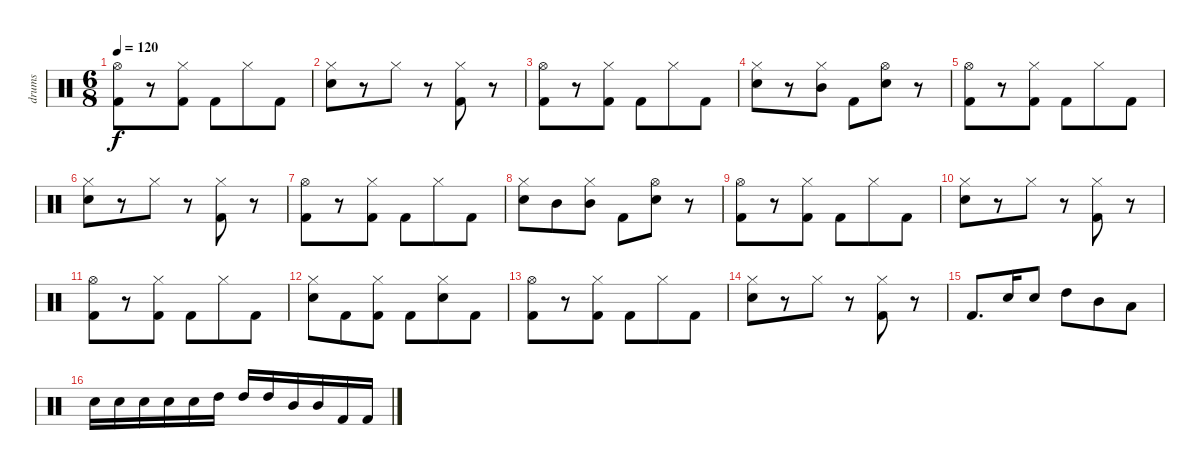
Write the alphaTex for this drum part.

\track ("drums" "drums") {instrument percussion}
\staff {score}
\articulation defaults
\ts (6 8)
\tempo 120
\clef neutral
\ks c
("Hi-Hat (open)" "Kick (hit) 2").8{dy f} r.8 ("Hi-Hat (closed)" "Kick (hit) 2").8 "Kick (hit) 2".8 "Hi-Hat (closed)".8 "Kick (hit) 2".8 |
("Hi-Hat (closed)" "Snare (hit) 2").8 r.8 "Hi-Hat (closed)".8 r.8 ("Hi-Hat (closed)" "Kick (hit) 2").8 r.8 |
("Hi-Hat (open)" "Kick (hit) 2").8 r.8 ("Hi-Hat (closed)" "Kick (hit) 2").8 "Kick (hit) 2".8 "Hi-Hat (closed)".8 "Kick (hit) 2".8 |
("Hi-Hat (closed)" "Snare (hit) 2").8 r.8 ("Hi-Hat (closed)" "Mid Tom (hit)").8 "Kick (hit) 2".8 ("Hi-Hat (open)" "Snare (hit) 2").8 r.8 |
("Hi-Hat (open)" "Kick (hit) 2").8 r.8 ("Hi-Hat (closed)" "Kick (hit) 2").8 "Kick (hit) 2".8 "Hi-Hat (closed)".8 "Kick (hit) 2".8 |
("Hi-Hat (closed)" "Snare (hit) 2").8 r.8 "Hi-Hat (closed)".8 r.8 ("Hi-Hat (closed)" "Kick (hit) 2").8 r.8 |
("Hi-Hat (open)" "Kick (hit) 2").8 r.8 ("Hi-Hat (closed)" "Kick (hit) 2").8 "Kick (hit) 2".8 "Hi-Hat (closed)".8 "Kick (hit) 2".8 |
("Hi-Hat (closed)" "Snare (hit) 2").8 "Mid Tom (hit)".8 ("Hi-Hat (closed)" "Mid Tom (hit)").8 "Kick (hit) 2".8 ("Hi-Hat (open)" "Snare (hit) 2").8 r.8 |
("Hi-Hat (open)" "Kick (hit) 2").8 r.8 ("Hi-Hat (closed)" "Kick (hit) 2").8 "Kick (hit) 2".8 "Hi-Hat (closed)".8 "Kick (hit) 2".8 |
("Hi-Hat (closed)" "Snare (hit) 2").8 r.8 "Hi-Hat (closed)".8 r.8 ("Hi-Hat (closed)" "Kick (hit) 2").8 r.8 |
("Hi-Hat (open)" "Kick (hit) 2").8 r.8 ("Hi-Hat (closed)" "Kick (hit) 2").8 "Kick (hit) 2".8 "Hi-Hat (closed)".8 "Kick (hit) 2".8 |
("Hi-Hat (closed)" "Snare (hit) 2").8 "Kick (hit) 2".8 ("Hi-Hat (closed)" "Kick (hit) 2").8 "Kick (hit) 2".8 ("Hi-Hat (closed)" "Snare (hit) 2").8 "Kick (hit) 2".8 |
("Hi-Hat (open)" "Kick (hit) 2").8 r.8 ("Hi-Hat (closed)" "Kick (hit) 2").8 "Kick (hit) 2".8 "Hi-Hat (closed)".8 "Kick (hit) 2".8 |
("Hi-Hat (closed)" "Snare (hit) 2").8 r.8 "Hi-Hat (closed)".8 r.8 ("Hi-Hat (closed)" "Kick (hit) 2").8 r.8 |
"Kick (hit) 2".8{d} "Snare (hit) 2".16 "Snare (hit) 2".8 "High Tom (hit)".8 "Mid Tom (hit)".8 "Low Tom (hit)".8 |
"Snare (hit) 2".16 "Snare (hit) 2".16 "Snare (hit) 2".16 "Snare (hit) 2".16 "Snare (hit) 2".16 "High Tom (hit)".16 "High Tom (hit)".16 "High Tom (hit)".16 "Mid Tom (hit)".16 "Mid Tom (hit)".16 "Kick (hit) 2".16 "Kick (hit) 2".16
